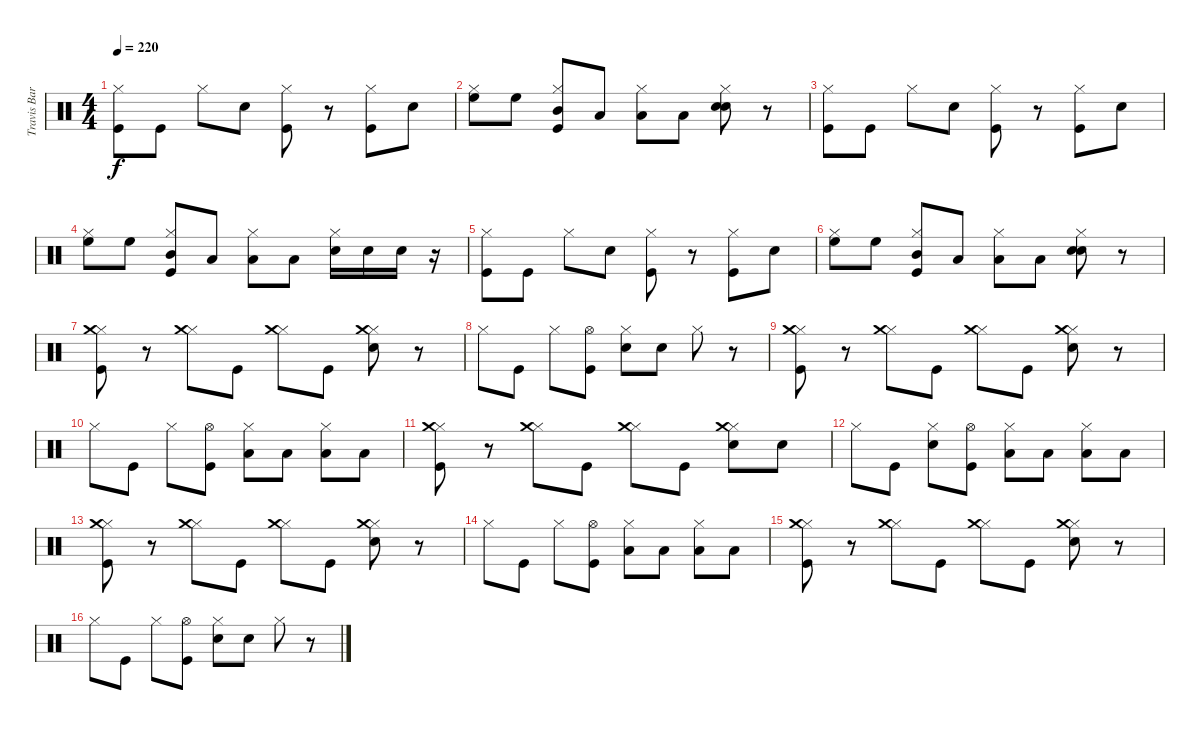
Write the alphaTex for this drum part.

\track ("Travis Barker (Drums)" "Travis Bar") {instrument percussion}
\staff {score}
\articulation defaults
\ts (4 4)
\tempo 220
\clef neutral
\ks c
("Kick (hit)" "Hi-Hat (closed)").8{dy f} "Kick (hit)".8 "Hi-Hat (closed)".8 "Electric Snare (hit)".8 ("Kick (hit)" "Hi-Hat (closed)").8 r.8 ("Kick (hit)" "Hi-Hat (closed)").8 "Electric Snare (hit)".8 |
("High Floor Tom (hit)" "Hi-Hat (closed)").8 "High Floor Tom (hit)".8 ("Kick (hit)" "Mid Tom (hit)" "Hi-Hat (closed)").8 "Low Tom (hit)".8 ("Low Floor Tom (hit)" "Hi-Hat (closed)").8 "Low Floor Tom (hit)".8 ("Electric Snare (hit)" "Electric Snare (hit)" "Hi-Hat (closed)").8 r.8 |
("Kick (hit)" "Hi-Hat (closed)").8 "Kick (hit)".8 "Hi-Hat (closed)".8 "Electric Snare (hit)".8 ("Kick (hit)" "Hi-Hat (closed)").8 r.8 ("Kick (hit)" "Hi-Hat (closed)").8 "Electric Snare (hit)".8 |
("High Floor Tom (hit)" "Hi-Hat (closed)").8 "High Floor Tom (hit)".8 ("Kick (hit)" "Mid Tom (hit)" "Hi-Hat (closed)").8 "Low Tom (hit)".8 ("Low Floor Tom (hit)" "Hi-Hat (closed)").8 "Low Floor Tom (hit)".8 ("Electric Snare (hit)" "Hi-Hat (closed)").16 "Electric Snare (hit)".16 "Electric Snare (hit)".16 r.16 |
("Kick (hit)" "Hi-Hat (closed)").8 "Kick (hit)".8 "Hi-Hat (closed)".8 "Electric Snare (hit)".8 ("Kick (hit)" "Hi-Hat (closed)").8 r.8 ("Kick (hit)" "Hi-Hat (closed)").8 "Electric Snare (hit)".8 |
("High Floor Tom (hit)" "Hi-Hat (closed)").8 "High Floor Tom (hit)".8 ("Kick (hit)" "Mid Tom (hit)" "Hi-Hat (closed)").8 "Low Tom (hit)".8 ("Low Floor Tom (hit)" "Hi-Hat (closed)").8 "Low Floor Tom (hit)".8 ("Electric Snare (hit)" "Electric Snare (hit)" "Hi-Hat (closed)").8 r.8 |
("Kick (hit)" "Hi-Hat (closed)" "Crash medium (hit)").8 r.8 ("Hi-Hat (closed)" "Crash medium (hit)").8 "Kick (hit)".8 ("Hi-Hat (closed)" "Crash medium (hit)").8 "Kick (hit)".8 ("Electric Snare (hit)" "Hi-Hat (closed)" "Crash medium (hit)").8 r.8 |
"Hi-Hat (closed)".8 "Kick (hit)".8 "Hi-Hat (closed)".8 ("Kick (hit)" "Hi-Hat (open)").8 ("Electric Snare (hit)" "Hi-Hat (closed)").8 "Electric Snare (hit)".8 "Hi-Hat (closed)".8 r.8 |
("Kick (hit)" "Hi-Hat (closed)" "Crash medium (hit)").8 r.8 ("Hi-Hat (closed)" "Crash medium (hit)").8 "Kick (hit)".8 ("Hi-Hat (closed)" "Crash medium (hit)").8 "Kick (hit)".8 ("Electric Snare (hit)" "Hi-Hat (closed)" "Crash medium (hit)").8 r.8 |
"Hi-Hat (closed)".8 "Kick (hit)".8 "Hi-Hat (closed)".8 ("Kick (hit)" "Hi-Hat (open)").8 ("Low Tom (hit)" "Hi-Hat (closed)").8 "Low Tom (hit)".8 ("Low Floor Tom (hit)" "Hi-Hat (closed)").8 "Low Floor Tom (hit)".8 |
("Kick (hit)" "Hi-Hat (closed)" "Crash medium (hit)").8 r.8 ("Hi-Hat (closed)" "Crash medium (hit)").8 "Kick (hit)".8 ("Hi-Hat (closed)" "Crash medium (hit)").8 "Kick (hit)".8 ("Electric Snare (hit)" "Hi-Hat (closed)" "Crash medium (hit)").8 "Electric Snare (hit)".8 |
"Hi-Hat (closed)".8 "Kick (hit)".8 ("Electric Snare (hit)" "Hi-Hat (closed)").8 ("Kick (hit)" "Hi-Hat (open)").8 ("Low Tom (hit)" "Hi-Hat (closed)").8 "Low Tom (hit)".8 ("Low Floor Tom (hit)" "Hi-Hat (closed)").8 "Low Floor Tom (hit)".8 |
("Kick (hit)" "Hi-Hat (closed)" "Crash medium (hit)").8 r.8 ("Hi-Hat (closed)" "Crash medium (hit)").8 "Kick (hit)".8 ("Hi-Hat (closed)" "Crash medium (hit)").8 "Kick (hit)".8 ("Electric Snare (hit)" "Hi-Hat (closed)" "Crash medium (hit)").8 r.8 |
"Hi-Hat (closed)".8 "Kick (hit)".8 "Hi-Hat (closed)".8 ("Kick (hit)" "Hi-Hat (open)").8 ("Low Tom (hit)" "Hi-Hat (closed)").8 "Low Tom (hit)".8 ("Low Floor Tom (hit)" "Hi-Hat (closed)").8 "Low Floor Tom (hit)".8 |
("Kick (hit)" "Hi-Hat (closed)" "Crash medium (hit)").8 r.8 ("Hi-Hat (closed)" "Crash medium (hit)").8 "Kick (hit)".8 ("Hi-Hat (closed)" "Crash medium (hit)").8 "Kick (hit)".8 ("Electric Snare (hit)" "Hi-Hat (closed)" "Crash medium (hit)").8 r.8 |
"Hi-Hat (closed)".8 "Kick (hit)".8 "Hi-Hat (closed)".8 ("Kick (hit)" "Hi-Hat (open)").8 ("Electric Snare (hit)" "Hi-Hat (closed)").8 "Electric Snare (hit)".8 "Hi-Hat (closed)".8 r.8
